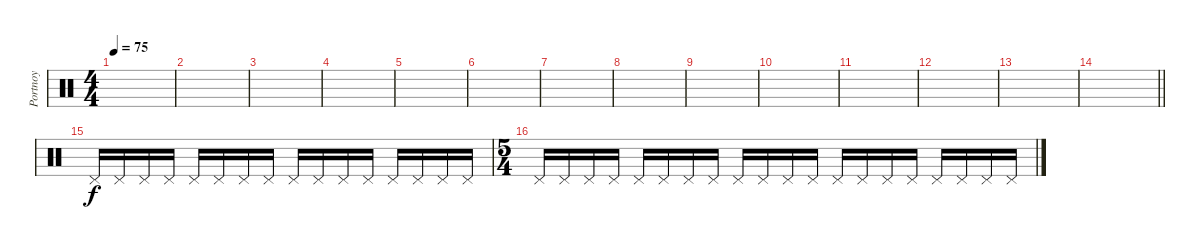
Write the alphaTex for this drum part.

\track ("Portnoy" "Portnoy") {instrument percussion}
\staff {score}
\articulation defaults
\ts (4 4)
\tempo 75
\clef neutral
\ks c
|
|
|
|
|
|
|
|
|
|
|
|
|
\barLineRight lightlight
|
"Pedal Hi-Hat (hit)".16{balance 16} "Pedal Hi-Hat (hit)".16 "Pedal Hi-Hat (hit)".16 "Pedal Hi-Hat (hit)".16 "Pedal Hi-Hat (hit)".16 "Pedal Hi-Hat (hit)".16 "Pedal Hi-Hat (hit)".16 "Pedal Hi-Hat (hit)".16 "Pedal Hi-Hat (hit)".16 "Pedal Hi-Hat (hit)".16 "Pedal Hi-Hat (hit)".16 "Pedal Hi-Hat (hit)".16 "Pedal Hi-Hat (hit)".16 "Pedal Hi-Hat (hit)".16 "Pedal Hi-Hat (hit)".16 "Pedal Hi-Hat (hit)".16 |
\ts (5 4)
"Pedal Hi-Hat (hit)".16 "Pedal Hi-Hat (hit)".16 "Pedal Hi-Hat (hit)".16 "Pedal Hi-Hat (hit)".16 "Pedal Hi-Hat (hit)".16 "Pedal Hi-Hat (hit)".16 "Pedal Hi-Hat (hit)".16 "Pedal Hi-Hat (hit)".16 "Pedal Hi-Hat (hit)".16 "Pedal Hi-Hat (hit)".16 "Pedal Hi-Hat (hit)".16 "Pedal Hi-Hat (hit)".16 "Pedal Hi-Hat (hit)".16 "Pedal Hi-Hat (hit)".16 "Pedal Hi-Hat (hit)".16 "Pedal Hi-Hat (hit)".16 "Pedal Hi-Hat (hit)".16 "Pedal Hi-Hat (hit)".16 "Pedal Hi-Hat (hit)".16 "Pedal Hi-Hat (hit)".16
